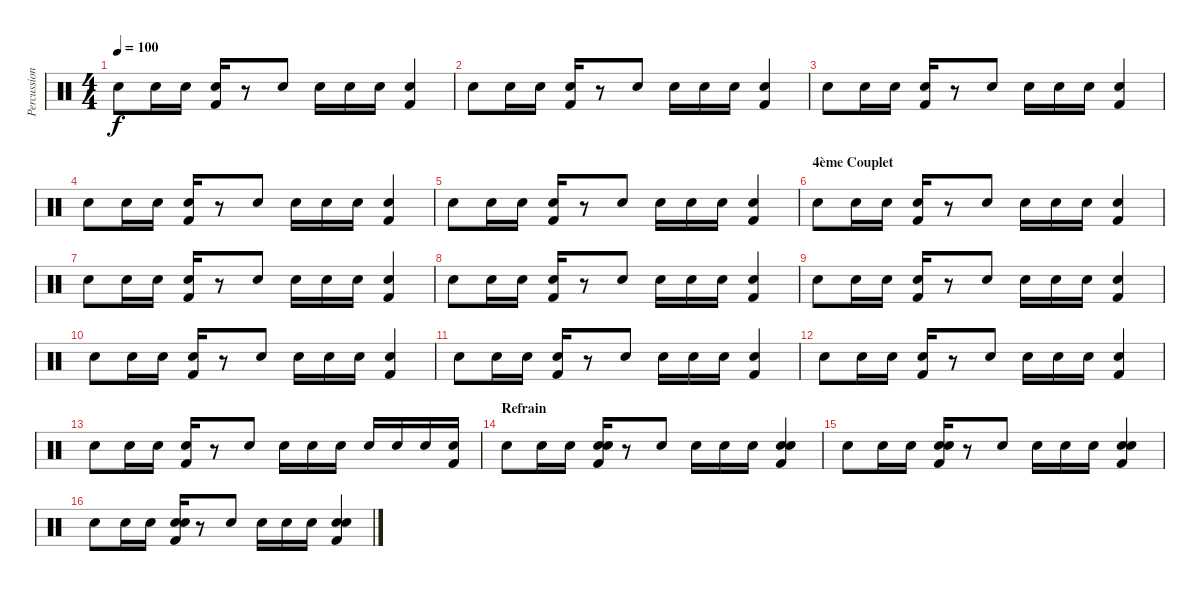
\track ("Percussions" "Percussion") {instrument percussion}
\staff {score}
\articulation defaults
\ts (4 4)
\tempo 100
\clef neutral
\ks c "Electric Snare (hit)".8{dy f} "Electric Snare (hit)".16 "Electric Snare (hit)".16
("Snare (hit) 2" "Kick (hit) 2").16 r.8 "Electric Snare (hit)".8 "Electric Snare (hit)".16 "Electric Snare (hit)".16 "Electric Snare (hit)".16 ("Snare (hit) 2" "Kick (hit) 2").4 |
"Electric Snare (hit)".8 "Electric Snare (hit)".16 "Electric Snare (hit)".16 ("Snare (hit) 2" "Kick (hit) 2").16 r.8 "Electric Snare (hit)".8 "Electric Snare (hit)".16 "Electric Snare (hit)".16 "Electric Snare (hit)".16 ("Snare (hit) 2" "Kick (hit) 2").4 |
"Electric Snare (hit)".8 "Electric Snare (hit)".16 "Electric Snare (hit)".16 ("Snare (hit) 2" "Kick (hit) 2").16 r.8 "Electric Snare (hit)".8 "Electric Snare (hit)".16 "Electric Snare (hit)".16 "Electric Snare (hit)".16 ("Snare (hit) 2" "Kick (hit) 2").4 |
"Electric Snare (hit)".8 "Electric Snare (hit)".16 "Electric Snare (hit)".16 ("Snare (hit) 2" "Kick (hit) 2").16 r.8 "Electric Snare (hit)".8 "Electric Snare (hit)".16 "Electric Snare (hit)".16 "Electric Snare (hit)".16 ("Snare (hit) 2" "Kick (hit) 2").4 |
"Electric Snare (hit)".8 "Electric Snare (hit)".16 "Electric Snare (hit)".16 ("Snare (hit) 2" "Kick (hit) 2").16 r.8 "Electric Snare (hit)".8 "Electric Snare (hit)".16 "Electric Snare (hit)".16 "Electric Snare (hit)".16 ("Snare (hit) 2" "Kick (hit) 2").4 |
\section ("" "4ème Couplet")
"Electric Snare (hit)".8 "Electric Snare (hit)".16 "Electric Snare (hit)".16 ("Snare (hit) 2" "Kick (hit) 2").16 r.8 "Electric Snare (hit)".8 "Electric Snare (hit)".16 "Electric Snare (hit)".16 "Electric Snare (hit)".16 ("Snare (hit) 2" "Kick (hit) 2").4 |
"Electric Snare (hit)".8 "Electric Snare (hit)".16 "Electric Snare (hit)".16 ("Snare (hit) 2" "Kick (hit) 2").16 r.8 "Electric Snare (hit)".8 "Electric Snare (hit)".16 "Electric Snare (hit)".16 "Electric Snare (hit)".16 ("Snare (hit) 2" "Kick (hit) 2").4 |
"Electric Snare (hit)".8 "Electric Snare (hit)".16 "Electric Snare (hit)".16 ("Snare (hit) 2" "Kick (hit) 2").16 r.8 "Electric Snare (hit)".8 "Electric Snare (hit)".16 "Electric Snare (hit)".16 "Electric Snare (hit)".16 ("Snare (hit) 2" "Kick (hit) 2").4 |
"Electric Snare (hit)".8 "Electric Snare (hit)".16 "Electric Snare (hit)".16 ("Snare (hit) 2" "Kick (hit) 2").16 r.8 "Electric Snare (hit)".8 "Electric Snare (hit)".16 "Electric Snare (hit)".16 "Electric Snare (hit)".16 ("Snare (hit) 2" "Kick (hit) 2").4 |
"Electric Snare (hit)".8 "Electric Snare (hit)".16 "Electric Snare (hit)".16 ("Snare (hit) 2" "Kick (hit) 2").16 r.8 "Electric Snare (hit)".8 "Electric Snare (hit)".16 "Electric Snare (hit)".16 "Electric Snare (hit)".16 ("Snare (hit) 2" "Kick (hit) 2").4 |
"Electric Snare (hit)".8 "Electric Snare (hit)".16 "Electric Snare (hit)".16 ("Snare (hit) 2" "Kick (hit) 2").16 r.8 "Electric Snare (hit)".8 "Electric Snare (hit)".16 "Electric Snare (hit)".16 "Electric Snare (hit)".16 ("Snare (hit) 2" "Kick (hit) 2").4 |
"Electric Snare (hit)".8 "Electric Snare (hit)".16 "Electric Snare (hit)".16 ("Snare (hit) 2" "Kick (hit) 2").16 r.8 "Electric Snare (hit)".8 "Electric Snare (hit)".16 "Electric Snare (hit)".16 "Electric Snare (hit)".16 ("Snare (hit) 2" "Kick (hit) 2").4 |
"Electric Snare (hit)".8 "Electric Snare (hit)".16 "Electric Snare (hit)".16 ("Snare (hit) 2" "Kick (hit) 2").16 r.8 "Electric Snare (hit)".8 "Electric Snare (hit)".16 "Electric Snare (hit)".16 "Electric Snare (hit)".16 "Electric Snare (hit)".16 "Electric Snare (hit)".16 "Electric Snare (hit)".16 ("Snare (hit) 2" "Kick (hit) 2").16 |
\section ("" "Refrain")
"Electric Snare (hit)".8 "Electric Snare (hit)".16 "Electric Snare (hit)".16 ("Snare (hit) 2" "Kick (hit) 2" "Electric Snare (hit)").16 r.8 "Electric Snare (hit)".8 "Electric Snare (hit)".16 "Electric Snare (hit)".16 "Electric Snare (hit)".16 ("Snare (hit) 2" "Kick (hit) 2" "Electric Snare (hit)").4 |
"Electric Snare (hit)".8 "Electric Snare (hit)".16 "Electric Snare (hit)".16 ("Snare (hit) 2" "Kick (hit) 2" "Electric Snare (hit)").16 r.8 "Electric Snare (hit)".8 "Electric Snare (hit)".16 "Electric Snare (hit)".16 "Electric Snare (hit)".16 ("Snare (hit) 2" "Kick (hit) 2" "Electric Snare (hit)").4 |
"Electric Snare (hit)".8 "Electric Snare (hit)".16 "Electric Snare (hit)".16 ("Snare (hit) 2" "Kick (hit) 2" "Electric Snare (hit)").16 r.8 "Electric Snare (hit)".8 "Electric Snare (hit)".16 "Electric Snare (hit)".16 "Electric Snare (hit)".16 ("Snare (hit) 2" "Kick (hit) 2" "Electric Snare (hit)").4
